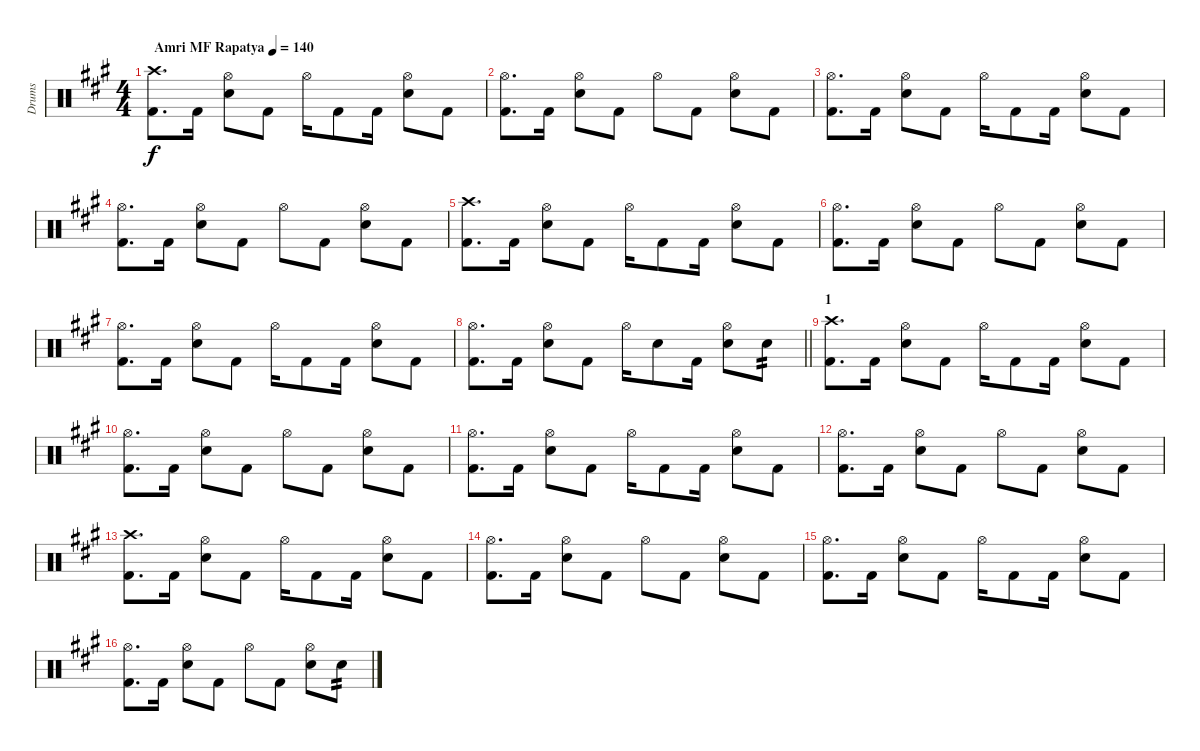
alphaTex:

\track ("Drums" "Drums") {instrument percussion}
\staff {score}
\articulation defaults
\ts (4 4)
\tempo (140 "Amri MF Rapatya")
\clef neutral
\ks a
("Crash high (hit)" "Kick (hit) 2").8{d dy f} "Kick (hit) 2".16 ("Hi-Hat (open)" "Electric Snare (hit)").8 "Kick (hit) 2".8 "Hi-Hat (open)".16 "Kick (hit) 2".8 "Kick (hit) 2".16 ("Hi-Hat (open)" "Electric Snare (hit)").8 "Kick (hit) 2".8 |
("Hi-Hat (open)" "Kick (hit) 2").8{d} "Kick (hit) 2".16 ("Hi-Hat (open)" "Electric Snare (hit)").8 "Kick (hit) 2".8 "Hi-Hat (open)".8 "Kick (hit) 2".8 ("Hi-Hat (open)" "Electric Snare (hit)").8 "Kick (hit) 2".8 |
("Hi-Hat (open)" "Kick (hit) 2").8{d} "Kick (hit) 2".16 ("Hi-Hat (open)" "Electric Snare (hit)").8 "Kick (hit) 2".8 "Hi-Hat (open)".16 "Kick (hit) 2".8 "Kick (hit) 2".16 ("Hi-Hat (open)" "Electric Snare (hit)").8 "Kick (hit) 2".8 |
("Hi-Hat (open)" "Kick (hit) 2").8{d} "Kick (hit) 2".16 ("Hi-Hat (open)" "Electric Snare (hit)").8 "Kick (hit) 2".8 "Hi-Hat (open)".8 "Kick (hit) 2".8 ("Hi-Hat (open)" "Electric Snare (hit)").8 "Kick (hit) 2".8 |
("Crash high (hit)" "Kick (hit) 2").8{d} "Kick (hit) 2".16 ("Hi-Hat (open)" "Electric Snare (hit)").8 "Kick (hit) 2".8 "Hi-Hat (open)".16 "Kick (hit) 2".8 "Kick (hit) 2".16 ("Hi-Hat (open)" "Electric Snare (hit)").8 "Kick (hit) 2".8 |
("Hi-Hat (open)" "Kick (hit) 2").8{d} "Kick (hit) 2".16 ("Hi-Hat (open)" "Electric Snare (hit)").8 "Kick (hit) 2".8 "Hi-Hat (open)".8 "Kick (hit) 2".8 ("Hi-Hat (open)" "Electric Snare (hit)").8 "Kick (hit) 2".8 |
("Hi-Hat (open)" "Kick (hit) 2").8{d} "Kick (hit) 2".16 ("Hi-Hat (open)" "Electric Snare (hit)").8 "Kick (hit) 2".8 "Hi-Hat (open)".16 "Kick (hit) 2".8 "Kick (hit) 2".16 ("Hi-Hat (open)" "Electric Snare (hit)").8 "Kick (hit) 2".8 |
\barLineRight lightlight
("Hi-Hat (open)" "Kick (hit) 2").8{d} "Kick (hit) 2".16 ("Hi-Hat (open)" "Electric Snare (hit)").8 "Kick (hit) 2".8 "Hi-Hat (open)".16 "Electric Snare (hit)".8 "Kick (hit) 2".16 ("Hi-Hat (open)" "Electric Snare (hit)").8 "Electric Snare (hit)".8{tp 2} |
\section ("" "1")
("Crash high (hit)" "Kick (hit) 2").8{d} "Kick (hit) 2".16 ("Hi-Hat (open)" "Electric Snare (hit)").8 "Kick (hit) 2".8 "Hi-Hat (open)".16 "Kick (hit) 2".8 "Kick (hit) 2".16 ("Hi-Hat (open)" "Electric Snare (hit)").8 "Kick (hit) 2".8 |
("Hi-Hat (open)" "Kick (hit) 2").8{d} "Kick (hit) 2".16 ("Hi-Hat (open)" "Electric Snare (hit)").8 "Kick (hit) 2".8 "Hi-Hat (open)".8 "Kick (hit) 2".8 ("Hi-Hat (open)" "Electric Snare (hit)").8 "Kick (hit) 2".8 |
("Hi-Hat (open)" "Kick (hit) 2").8{d} "Kick (hit) 2".16 ("Hi-Hat (open)" "Electric Snare (hit)").8 "Kick (hit) 2".8 "Hi-Hat (open)".16 "Kick (hit) 2".8 "Kick (hit) 2".16 ("Hi-Hat (open)" "Electric Snare (hit)").8 "Kick (hit) 2".8 |
("Hi-Hat (open)" "Kick (hit) 2").8{d} "Kick (hit) 2".16 ("Hi-Hat (open)" "Electric Snare (hit)").8 "Kick (hit) 2".8 "Hi-Hat (open)".8 "Kick (hit) 2".8 ("Hi-Hat (open)" "Electric Snare (hit)").8 "Kick (hit) 2".8 |
("Crash high (hit)" "Kick (hit) 2").8{d} "Kick (hit) 2".16 ("Hi-Hat (open)" "Electric Snare (hit)").8 "Kick (hit) 2".8 "Hi-Hat (open)".16 "Kick (hit) 2".8 "Kick (hit) 2".16 ("Hi-Hat (open)" "Electric Snare (hit)").8 "Kick (hit) 2".8 |
("Hi-Hat (open)" "Kick (hit) 2").8{d} "Kick (hit) 2".16 ("Hi-Hat (open)" "Electric Snare (hit)").8 "Kick (hit) 2".8 "Hi-Hat (open)".8 "Kick (hit) 2".8 ("Hi-Hat (open)" "Electric Snare (hit)").8 "Kick (hit) 2".8 |
("Hi-Hat (open)" "Kick (hit) 2").8{d} "Kick (hit) 2".16 ("Hi-Hat (open)" "Electric Snare (hit)").8 "Kick (hit) 2".8 "Hi-Hat (open)".16 "Kick (hit) 2".8 "Kick (hit) 2".16 ("Hi-Hat (open)" "Electric Snare (hit)").8 "Kick (hit) 2".8 |
("Hi-Hat (open)" "Kick (hit) 2").8{d} "Kick (hit) 2".16 ("Hi-Hat (open)" "Electric Snare (hit)").8 "Kick (hit) 2".8 "Hi-Hat (open)".8 "Kick (hit) 2".8 ("Hi-Hat (open)" "Electric Snare (hit)").8 "Electric Snare (hit)".8{tp 2}
